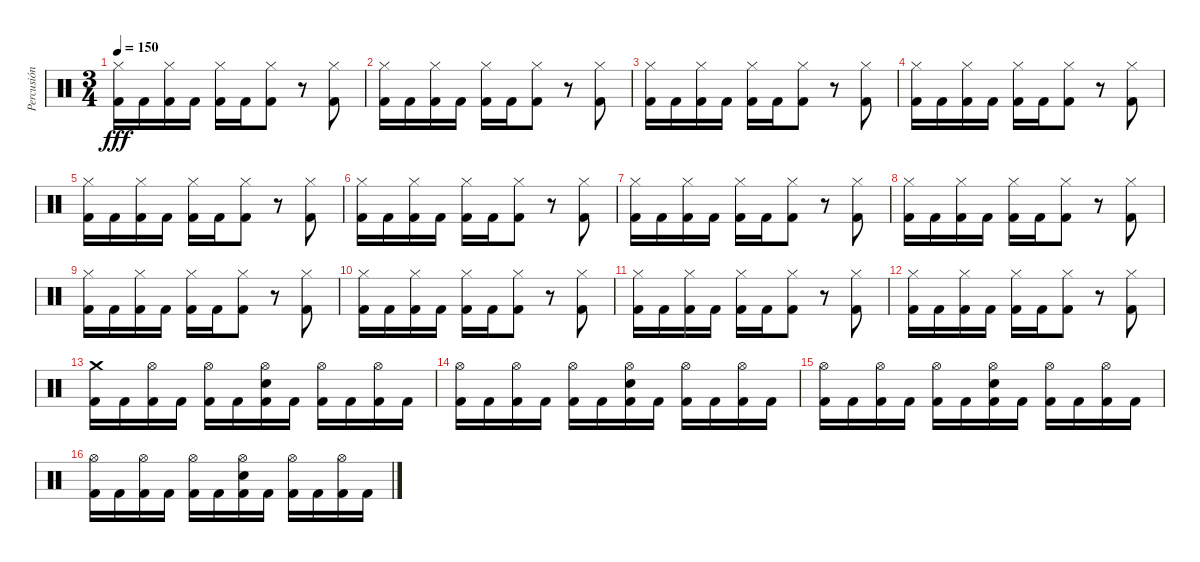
\track ("Percusión" "Percusión") {instrument percussion}
\staff {score}
\articulation defaults
\ts (3 4)
\tempo 150
\clef neutral
\ks c
("Hi-Hat (closed)" "Kick (hit) 2").16{dy fff} "Kick (hit) 2".16 ("Hi-Hat (closed)" "Kick (hit) 2").16 "Kick (hit) 2".16 ("Hi-Hat (closed)" "Kick (hit) 2").16 "Kick (hit) 2".16 ("Hi-Hat (closed)" "Kick (hit) 2").8 r.8 ("Hi-Hat (closed)" "Kick (hit) 2").8 |
("Hi-Hat (closed)" "Kick (hit) 2").16 "Kick (hit) 2".16 ("Hi-Hat (closed)" "Kick (hit) 2").16 "Kick (hit) 2".16 ("Hi-Hat (closed)" "Kick (hit) 2").16 "Kick (hit) 2".16 ("Hi-Hat (closed)" "Kick (hit) 2").8 r.8 ("Hi-Hat (closed)" "Kick (hit) 2").8 |
("Hi-Hat (closed)" "Kick (hit) 2").16 "Kick (hit) 2".16 ("Hi-Hat (closed)" "Kick (hit) 2").16 "Kick (hit) 2".16 ("Hi-Hat (closed)" "Kick (hit) 2").16 "Kick (hit) 2".16 ("Hi-Hat (closed)" "Kick (hit) 2").8 r.8 ("Hi-Hat (closed)" "Kick (hit) 2").8 |
("Hi-Hat (closed)" "Kick (hit) 2").16 "Kick (hit) 2".16 ("Hi-Hat (closed)" "Kick (hit) 2").16 "Kick (hit) 2".16 ("Hi-Hat (closed)" "Kick (hit) 2").16 "Kick (hit) 2".16 ("Hi-Hat (closed)" "Kick (hit) 2").8 r.8 ("Hi-Hat (closed)" "Kick (hit) 2").8 |
("Hi-Hat (closed)" "Kick (hit) 2").16 "Kick (hit) 2".16 ("Hi-Hat (closed)" "Kick (hit) 2").16 "Kick (hit) 2".16 ("Hi-Hat (closed)" "Kick (hit) 2").16 "Kick (hit) 2".16 ("Hi-Hat (closed)" "Kick (hit) 2").8 r.8 ("Hi-Hat (closed)" "Kick (hit) 2").8 |
("Hi-Hat (closed)" "Kick (hit) 2").16 "Kick (hit) 2".16 ("Hi-Hat (closed)" "Kick (hit) 2").16 "Kick (hit) 2".16 ("Hi-Hat (closed)" "Kick (hit) 2").16 "Kick (hit) 2".16 ("Hi-Hat (closed)" "Kick (hit) 2").8 r.8 ("Hi-Hat (closed)" "Kick (hit) 2").8 |
("Hi-Hat (closed)" "Kick (hit) 2").16 "Kick (hit) 2".16 ("Hi-Hat (closed)" "Kick (hit) 2").16 "Kick (hit) 2".16 ("Hi-Hat (closed)" "Kick (hit) 2").16 "Kick (hit) 2".16 ("Hi-Hat (closed)" "Kick (hit) 2").8 r.8 ("Hi-Hat (closed)" "Kick (hit) 2").8 |
("Hi-Hat (closed)" "Kick (hit) 2").16 "Kick (hit) 2".16 ("Hi-Hat (closed)" "Kick (hit) 2").16 "Kick (hit) 2".16 ("Hi-Hat (closed)" "Kick (hit) 2").16 "Kick (hit) 2".16 ("Hi-Hat (closed)" "Kick (hit) 2").8 r.8 ("Hi-Hat (closed)" "Kick (hit) 2").8 |
("Hi-Hat (closed)" "Kick (hit) 2").16 "Kick (hit) 2".16 ("Hi-Hat (closed)" "Kick (hit) 2").16 "Kick (hit) 2".16 ("Hi-Hat (closed)" "Kick (hit) 2").16 "Kick (hit) 2".16 ("Hi-Hat (closed)" "Kick (hit) 2").8 r.8 ("Hi-Hat (closed)" "Kick (hit) 2").8 |
("Hi-Hat (closed)" "Kick (hit) 2").16 "Kick (hit) 2".16 ("Hi-Hat (closed)" "Kick (hit) 2").16 "Kick (hit) 2".16 ("Hi-Hat (closed)" "Kick (hit) 2").16 "Kick (hit) 2".16 ("Hi-Hat (closed)" "Kick (hit) 2").8 r.8 ("Hi-Hat (closed)" "Kick (hit) 2").8 |
("Hi-Hat (closed)" "Kick (hit) 2").16 "Kick (hit) 2".16 ("Hi-Hat (closed)" "Kick (hit) 2").16 "Kick (hit) 2".16 ("Hi-Hat (closed)" "Kick (hit) 2").16 "Kick (hit) 2".16 ("Hi-Hat (closed)" "Kick (hit) 2").8 r.8 ("Hi-Hat (closed)" "Kick (hit) 2").8 |
("Hi-Hat (closed)" "Kick (hit) 2").16 "Kick (hit) 2".16 ("Hi-Hat (closed)" "Kick (hit) 2").16 "Kick (hit) 2".16 ("Hi-Hat (closed)" "Kick (hit) 2").16 "Kick (hit) 2".16 ("Hi-Hat (closed)" "Kick (hit) 2").8 r.8 ("Hi-Hat (closed)" "Kick (hit) 2").8 |
("Crash medium (hit)" "Kick (hit) 2").16 "Kick (hit) 2".16 ("Hi-Hat (open)" "Kick (hit) 2").16 "Kick (hit) 2".16 ("Hi-Hat (open)" "Kick (hit) 2").16 "Kick (hit) 2".16 ("Hi-Hat (open)" "Snare (hit) 2" "Kick (hit) 2").16 "Kick (hit) 2".16 ("Hi-Hat (open)" "Kick (hit) 2").16 "Kick (hit) 2".16 ("Hi-Hat (open)" "Kick (hit) 2").16 "Kick (hit) 2".16 |
("Hi-Hat (open)" "Kick (hit) 2").16 "Kick (hit) 2".16 ("Hi-Hat (open)" "Kick (hit) 2").16 "Kick (hit) 2".16 ("Hi-Hat (open)" "Kick (hit) 2").16 "Kick (hit) 2".16 ("Hi-Hat (open)" "Snare (hit) 2" "Kick (hit) 2").16 "Kick (hit) 2".16 ("Hi-Hat (open)" "Kick (hit) 2").16 "Kick (hit) 2".16 ("Hi-Hat (open)" "Kick (hit) 2").16 "Kick (hit) 2".16 |
("Hi-Hat (open)" "Kick (hit) 2").16 "Kick (hit) 2".16 ("Hi-Hat (open)" "Kick (hit) 2").16 "Kick (hit) 2".16 ("Hi-Hat (open)" "Kick (hit) 2").16 "Kick (hit) 2".16 ("Hi-Hat (open)" "Snare (hit) 2" "Kick (hit) 2").16 "Kick (hit) 2".16 ("Hi-Hat (open)" "Kick (hit) 2").16 "Kick (hit) 2".16 ("Hi-Hat (open)" "Kick (hit) 2").16 "Kick (hit) 2".16 |
("Hi-Hat (open)" "Kick (hit) 2").16 "Kick (hit) 2".16 ("Hi-Hat (open)" "Kick (hit) 2").16 "Kick (hit) 2".16 ("Hi-Hat (open)" "Kick (hit) 2").16 "Kick (hit) 2".16 ("Hi-Hat (open)" "Snare (hit) 2" "Kick (hit) 2").16 "Kick (hit) 2".16 ("Hi-Hat (open)" "Kick (hit) 2").16 "Kick (hit) 2".16 ("Hi-Hat (open)" "Kick (hit) 2").16 "Kick (hit) 2".16
